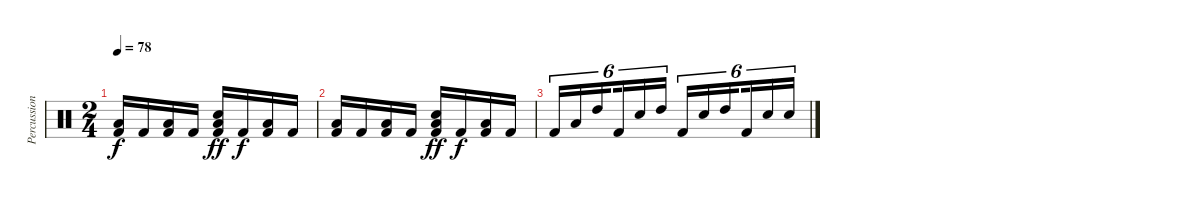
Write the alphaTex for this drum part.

\track ("Percussion" "Percussion") {instrument percussion}
\staff {score}
\articulation defaults
\ts (2 4)
\tempo 78
\clef neutral
\ks c
("Kick (hit) 2" "Low Tom (hit)").16{dy f} "Kick (hit) 2".16 ("Kick (hit) 2" "Low Tom (hit)").16 "Kick (hit) 2".16 ("Kick (hit) 2" "Snare (hit) 2" "Low Tom (hit)").16{dy ff} "Kick (hit) 2".16{dy f} ("Kick (hit) 2" "Low Tom (hit)").16 "Kick (hit) 2".16 |
("Kick (hit) 2" "Low Tom (hit)").16 "Kick (hit) 2".16 ("Kick (hit) 2" "Low Tom (hit)").16 "Kick (hit) 2".16 ("Kick (hit) 2" "Snare (hit) 2" "Low Tom (hit)").16{dy ff} "Kick (hit) 2".16{dy f} ("Kick (hit) 2" "Low Tom (hit)").16 "Kick (hit) 2".16 |
"Kick (hit) 2".16{tu (6 4)} "Low Tom (hit)".16{tu (6 4)} "High Tom (hit)".16{tu (6 4) beam splitsecondary} "Kick (hit) 2".16{tu (6 4)} "Snare (hit) 2".16{tu (6 4)} "High Tom (hit)".16{tu (6 4)} "Kick (hit) 2".16{tu (6 4)} "Metronome (bell)".16{tu (6 4)} "High Tom (hit)".16{tu (6 4) beam splitsecondary} "Kick (hit) 2".16{tu (6 4)} "Snare (hit) 2".16{tu (6 4)} "Snare (hit) 2".16{tu (6 4)}
